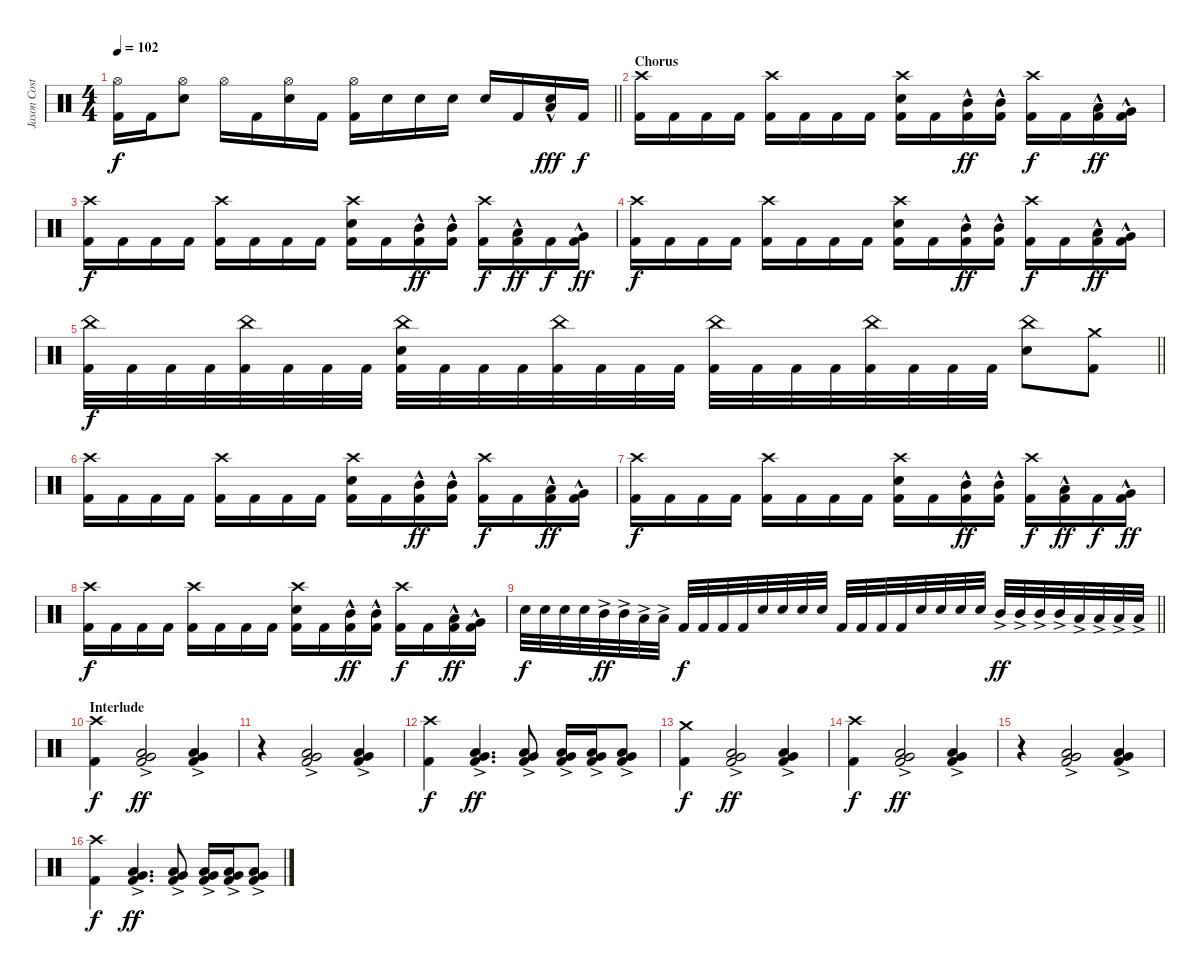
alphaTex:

\track ("Jason Costa" "Jason Cost") {instrument percussion}
\staff {score}
\articulation defaults
\ts (4 4)
\tempo 102
\clef neutral
\barLineRight lightlight
\ks c
("Hi-Hat (open)" "Kick (hit) 2").16{dy f} "Kick (hit) 2".16 ("Snare (hit) 2" "Hi-Hat (open)").8 "Hi-Hat (open)".16 "Kick (hit) 2".16 ("Snare (hit) 2" "Hi-Hat (open)").16 "Kick (hit) 2".16 ("Hi-Hat (open)" "Kick (hit) 2").16 "Snare (hit) 2".16 "Snare (hit) 2".16 "Snare (hit) 2".16 "Snare (hit) 2".16 "Kick (hit) 2".16 ("Snare (hit) 2" "Low Floor Tom (hit)"{hac}).16{dy fff} "Kick (hit) 2".16{dy f} |
\section ("" "Chorus")
("Crash high (hit)" "Kick (hit) 2").16 "Kick (hit) 2".16 "Kick (hit) 2".16 "Kick (hit) 2".16 ("Crash high (hit)" "Kick (hit) 2").16 "Kick (hit) 2".16 "Kick (hit) 2".16 "Kick (hit) 2".16 ("Crash high (hit)" "Snare (hit) 2" "Kick (hit) 2").16 "Kick (hit) 2".16 ("Mid Tom (hit)"{hac} "Kick (hit) 2").16{dy ff} ("Mid Tom (hit)"{hac} "Kick (hit) 2").16 ("Crash high (hit)" "Kick (hit) 2").16{dy f} "Kick (hit) 2".16 ("Low Tom (hit)"{hac} "Kick (hit) 2").16{dy ff} ("Very Low Tom (hit)"{hac} "Kick (hit) 2").16 |
("Crash high (hit)" "Kick (hit) 2").16{dy f} "Kick (hit) 2".16 "Kick (hit) 2".16 "Kick (hit) 2".16 ("Crash high (hit)" "Kick (hit) 2").16 "Kick (hit) 2".16 "Kick (hit) 2".16 "Kick (hit) 2".16 ("Crash high (hit)" "Snare (hit) 2" "Kick (hit) 2").16 "Kick (hit) 2".16 ("Mid Tom (hit)"{hac} "Kick (hit) 2").16{dy ff} ("Mid Tom (hit)"{hac} "Kick (hit) 2").16 ("Crash high (hit)" "Kick (hit) 2").16{dy f} ("Low Tom (hit)"{hac} "Kick (hit) 2").16{dy ff} "Kick (hit) 2".16{dy f} ("Very Low Tom (hit)"{hac} "Kick (hit) 2").16{dy ff} |
("Crash high (hit)" "Kick (hit) 2").16{dy f} "Kick (hit) 2".16 "Kick (hit) 2".16 "Kick (hit) 2".16 ("Crash high (hit)" "Kick (hit) 2").16 "Kick (hit) 2".16 "Kick (hit) 2".16 "Kick (hit) 2".16 ("Crash high (hit)" "Snare (hit) 2" "Kick (hit) 2").16 "Kick (hit) 2".16 ("Mid Tom (hit)"{hac} "Kick (hit) 2").16{dy ff} ("Mid Tom (hit)"{hac} "Kick (hit) 2").16 ("Crash high (hit)" "Kick (hit) 2").16{dy f} "Kick (hit) 2".16 ("Low Tom (hit)"{hac} "Kick (hit) 2").16{dy ff} ("Very Low Tom (hit)"{hac} "Kick (hit) 2").16 |
\barLineRight lightlight
("China (hit)" "Kick (hit) 2").32{dy f} "Kick (hit) 2".32 "Kick (hit) 2".32 "Kick (hit) 2".32 ("China (hit)" "Kick (hit) 2").32 "Kick (hit) 2".32 "Kick (hit) 2".32 "Kick (hit) 2".32 ("China (hit)" "Snare (hit) 2" "Kick (hit) 2").32 "Kick (hit) 2".32 "Kick (hit) 2".32 "Kick (hit) 2".32 ("China (hit)" "Kick (hit) 2").32 "Kick (hit) 2".32 "Kick (hit) 2".32 "Kick (hit) 2".32 ("China (hit)" "Kick (hit) 2").32 "Kick (hit) 2".32 "Kick (hit) 2".32 "Kick (hit) 2".32 ("China (hit)" "Kick (hit) 2").32 "Kick (hit) 2".32 "Kick (hit) 2".32 "Kick (hit) 2".32 ("China (hit)" "Snare (hit) 2").8 ("Crash medium (hit)" "Kick (hit) 2").8 |
("Crash high (hit)" "Kick (hit) 2").16 "Kick (hit) 2".16 "Kick (hit) 2".16 "Kick (hit) 2".16 ("Crash high (hit)" "Kick (hit) 2").16 "Kick (hit) 2".16 "Kick (hit) 2".16 "Kick (hit) 2".16 ("Crash high (hit)" "Snare (hit) 2" "Kick (hit) 2").16 "Kick (hit) 2".16 ("Mid Tom (hit)"{hac} "Kick (hit) 2").16{dy ff} ("Mid Tom (hit)"{hac} "Kick (hit) 2").16 ("Crash high (hit)" "Kick (hit) 2").16{dy f} "Kick (hit) 2".16 ("Low Tom (hit)"{hac} "Kick (hit) 2").16{dy ff} ("Very Low Tom (hit)"{hac} "Kick (hit) 2").16 |
("Crash high (hit)" "Kick (hit) 2").16{dy f} "Kick (hit) 2".16 "Kick (hit) 2".16 "Kick (hit) 2".16 ("Crash high (hit)" "Kick (hit) 2").16 "Kick (hit) 2".16 "Kick (hit) 2".16 "Kick (hit) 2".16 ("Crash high (hit)" "Snare (hit) 2" "Kick (hit) 2").16 "Kick (hit) 2".16 ("Mid Tom (hit)"{hac} "Kick (hit) 2").16{dy ff} ("Mid Tom (hit)"{hac} "Kick (hit) 2").16 ("Crash high (hit)" "Kick (hit) 2").16{dy f} ("Low Tom (hit)"{hac} "Kick (hit) 2").16{dy ff} "Kick (hit) 2".16{dy f} ("Very Low Tom (hit)"{hac} "Kick (hit) 2").16{dy ff} |
("Crash high (hit)" "Kick (hit) 2").16{dy f} "Kick (hit) 2".16 "Kick (hit) 2".16 "Kick (hit) 2".16 ("Crash high (hit)" "Kick (hit) 2").16 "Kick (hit) 2".16 "Kick (hit) 2".16 "Kick (hit) 2".16 ("Crash high (hit)" "Snare (hit) 2" "Kick (hit) 2").16 "Kick (hit) 2".16 ("Mid Tom (hit)"{hac} "Kick (hit) 2").16{dy ff} ("Mid Tom (hit)"{hac} "Kick (hit) 2").16 ("Crash high (hit)" "Kick (hit) 2").16{dy f} "Kick (hit) 2".16 ("Low Tom (hit)"{hac} "Kick (hit) 2").16{dy ff} ("Very Low Tom (hit)"{hac} "Kick (hit) 2").16 |
\barLineRight lightlight "Snare (hit) 2".32{dy f} "Snare (hit) 2".32 "Snare (hit) 2".32 "Snare (hit) 2".32 "Mid Tom (hit)"{ac}.32{dy ff} "Mid Tom (hit)"{ac}.32 "Low Tom (hit)"{ac}.32 "Low Tom (hit)"{ac}.32 "Kick (hit) 2".32{dy f} "Kick (hit) 2".32 "Kick (hit) 2".32 "Kick (hit) 2".32 "Snare (hit) 2".32 "Snare (hit) 2".32 "Snare (hit) 2".32 "Snare (hit) 2".32 "Kick (hit) 2".32 "Kick (hit) 2".32 "Kick (hit) 2".32 "Kick (hit) 2".32 "Snare (hit) 2".32 "Snare (hit) 2".32 "Snare (hit) 2".32 "Snare (hit) 2".32 "Mid Tom (hit)"{ac}.32{dy ff} "Mid Tom (hit)"{ac}.32 "Mid Tom (hit)"{ac}.32 "Mid Tom (hit)"{ac}.32 "Low Tom (hit)"{ac}.32 "Low Tom (hit)"{ac}.32 "Low Tom (hit)"{ac}.32 "Low Tom (hit)"{ac}.32
|
\section ("" "Interlude")
("Crash high (hit)" "Kick (hit) 2").4{dy f} ("Low Tom (hit)"{ac} "Very Low Tom (hit)"{ac} "Kick (hit) 2").2{dy ff} ("Low Tom (hit)"{ac} "Very Low Tom (hit)"{ac} "Kick (hit) 2").4 |
r.4 ("Low Tom (hit)"{ac} "Very Low Tom (hit)"{ac} "Kick (hit) 2").2 ("Low Tom (hit)"{ac} "Very Low Tom (hit)"{ac} "Kick (hit) 2").4 |
("Crash high (hit)" "Kick (hit) 2").4{dy f} ("Low Tom (hit)"{ac} "Very Low Tom (hit)"{ac} "Kick (hit) 2").4{d dy ff} ("Low Tom (hit)"{ac} "Very Low Tom (hit)"{ac} "Kick (hit) 2").8 ("Low Tom (hit)"{ac} "Very Low Tom (hit)"{ac} "Kick (hit) 2").16 ("Low Tom (hit)"{ac} "Very Low Tom (hit)"{ac} "Kick (hit) 2").16 ("Low Tom (hit)"{ac} "Very Low Tom (hit)"{ac} "Kick (hit) 2").8 |
("Crash medium (hit)" "Kick (hit) 2").4{dy f} ("Low Tom (hit)"{ac} "Very Low Tom (hit)"{ac} "Kick (hit) 2").2{dy ff} ("Low Tom (hit)"{ac} "Very Low Tom (hit)"{ac} "Kick (hit) 2").4 |
("Crash high (hit)" "Kick (hit) 2").4{dy f} ("Low Tom (hit)"{ac} "Very Low Tom (hit)"{ac} "Kick (hit) 2").2{dy ff} ("Low Tom (hit)"{ac} "Very Low Tom (hit)"{ac} "Kick (hit) 2").4 |
r.4 ("Low Tom (hit)"{ac} "Very Low Tom (hit)"{ac} "Kick (hit) 2").2 ("Low Tom (hit)"{ac} "Very Low Tom (hit)"{ac} "Kick (hit) 2").4 |
("Crash high (hit)" "Kick (hit) 2").4{dy f} ("Low Tom (hit)"{ac} "Very Low Tom (hit)"{ac} "Kick (hit) 2").4{d dy ff} ("Low Tom (hit)"{ac} "Very Low Tom (hit)"{ac} "Kick (hit) 2").8 ("Low Tom (hit)"{ac} "Very Low Tom (hit)"{ac} "Kick (hit) 2").16 ("Low Tom (hit)"{ac} "Very Low Tom (hit)"{ac} "Kick (hit) 2").16 ("Low Tom (hit)"{ac} "Very Low Tom (hit)"{ac} "Kick (hit) 2").8
